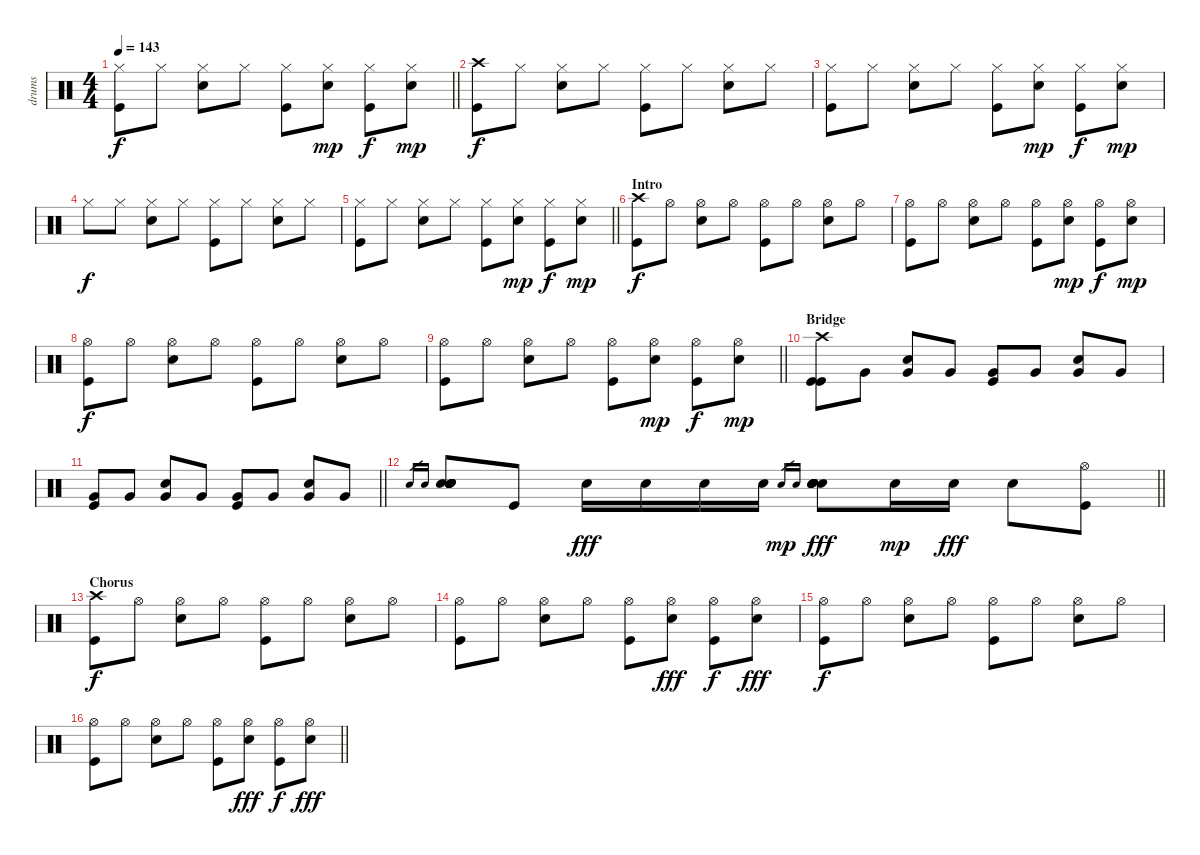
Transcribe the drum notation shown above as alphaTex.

\track ("drums" "drums") {instrument percussion}
\staff {score}
\articulation defaults
\ts (4 4)
\tempo 143
\clef neutral
\barLineRight lightlight
\ks c
("Hi-Hat (closed)" "Kick (hit)").8{dy f} "Hi-Hat (closed)".8 ("Hi-Hat (closed)" "Snare (hit) 2").8 "Hi-Hat (closed)".8 ("Hi-Hat (closed)" "Kick (hit)").8 ("Hi-Hat (closed)" "Snare (hit) 2").8{dy mp} ("Hi-Hat (closed)" "Kick (hit)").8{dy f} ("Hi-Hat (closed)" "Snare (hit) 2").8{dy mp} |
("Crash high (hit)" "Kick (hit)").8{dy f} "Hi-Hat (closed)".8 ("Hi-Hat (closed)" "Snare (hit) 2").8 "Hi-Hat (closed)".8 ("Hi-Hat (closed)" "Kick (hit)").8 "Hi-Hat (closed)".8 ("Hi-Hat (closed)" "Snare (hit) 2").8 "Hi-Hat (closed)".8 |
("Hi-Hat (closed)" "Kick (hit)").8 "Hi-Hat (closed)".8 ("Hi-Hat (closed)" "Snare (hit) 2").8 "Hi-Hat (closed)".8 ("Hi-Hat (closed)" "Kick (hit)").8 ("Hi-Hat (closed)" "Snare (hit) 2").8{dy mp} ("Hi-Hat (closed)" "Kick (hit)").8{dy f} ("Hi-Hat (closed)" "Snare (hit) 2").8{dy mp} |
"Hi-Hat (closed)".8{dy f} "Hi-Hat (closed)".8 ("Hi-Hat (closed)" "Snare (hit) 2").8 "Hi-Hat (closed)".8 ("Hi-Hat (closed)" "Kick (hit)").8 "Hi-Hat (closed)".8 ("Hi-Hat (closed)" "Snare (hit) 2").8 "Hi-Hat (closed)".8 |
\barLineRight lightlight
("Hi-Hat (closed)" "Kick (hit)").8 "Hi-Hat (closed)".8 ("Hi-Hat (closed)" "Snare (hit) 2").8 "Hi-Hat (closed)".8 ("Hi-Hat (closed)" "Kick (hit)").8 ("Hi-Hat (closed)" "Snare (hit) 2").8{dy mp} ("Hi-Hat (closed)" "Kick (hit)").8{dy f} ("Hi-Hat (closed)" "Snare (hit) 2").8{dy mp} |
\section ("" "Intro")
("Crash high (hit)" "Kick (hit)").8{dy f} "Hi-Hat (open)".8 ("Hi-Hat (open)" "Snare (hit) 2").8 "Hi-Hat (open)".8 ("Hi-Hat (open)" "Kick (hit)").8 "Hi-Hat (open)".8 ("Hi-Hat (open)" "Snare (hit) 2").8 "Hi-Hat (open)".8 |
("Hi-Hat (open)" "Kick (hit)").8 "Hi-Hat (open)".8 ("Hi-Hat (open)" "Snare (hit) 2").8 "Hi-Hat (open)".8 ("Hi-Hat (open)" "Kick (hit)").8 ("Hi-Hat (open)" "Snare (hit) 2").8{dy mp} ("Hi-Hat (open)" "Kick (hit)").8{dy f} ("Hi-Hat (open)" "Snare (hit) 2").8{dy mp} |
("Hi-Hat (open)" "Kick (hit)").8{dy f} "Hi-Hat (open)".8 ("Hi-Hat (open)" "Snare (hit) 2").8 "Hi-Hat (open)".8 ("Hi-Hat (open)" "Kick (hit)").8 "Hi-Hat (open)".8 ("Hi-Hat (open)" "Snare (hit) 2").8 "Hi-Hat (open)".8 |
\barLineRight lightlight
("Hi-Hat (open)" "Kick (hit)").8 "Hi-Hat (open)".8 ("Hi-Hat (open)" "Snare (hit) 2").8 "Hi-Hat (open)".8 ("Hi-Hat (open)" "Kick (hit)").8 ("Hi-Hat (open)" "Snare (hit) 2").8{dy mp} ("Hi-Hat (open)" "Kick (hit)").8{dy f} ("Hi-Hat (open)" "Snare (hit) 2").8{dy mp} |
\section ("" "Bridge")
("Crash high (hit)" "Kick (hit)" "Kick (hit)").8 "Very Low Tom (hit)".8 ("Snare (hit) 2" "Very Low Tom (hit)").8 "Very Low Tom (hit)".8 ("Very Low Tom (hit)" "Kick (hit)").8 "Very Low Tom (hit)".8 ("Snare (hit) 2" "Very Low Tom (hit)").8 "Very Low Tom (hit)".8 |
\barLineRight lightlight
("Very Low Tom (hit)" "Kick (hit)").8 "Very Low Tom (hit)".8 ("Snare (hit) 2" "Very Low Tom (hit)").8 "Very Low Tom (hit)".8 ("Very Low Tom (hit)" "Kick (hit)").8 "Very Low Tom (hit)".8 ("Snare (hit) 2" "Very Low Tom (hit)").8 "Very Low Tom (hit)".8 |
\barLineRight lightlight "Snare (hit) 2".16{gr} "Snare (hit) 2".16{gr}
("Snare (hit) 2" "Snare (hit) 2" "Snare (hit) 2" "Snare (hit) 2" "Snare (hit) 2" "Snare (hit) 2").8 "Kick (hit)".8 "Snare (hit) 2".16{dy fff} "Snare (hit) 2".16 "Snare (hit) 2".16 "Snare (hit) 2".16 "Snare (hit) 2".16{gr dy mp} "Snare (hit) 2".16{gr} ("Snare (hit) 2" "Snare (hit) 2" "Snare (hit) 2" "Snare (hit) 2" "Snare (hit) 2" "Snare (hit) 2").8{dy fff} "Snare (hit) 2".16{dy mp} "Snare (hit) 2".16{dy fff} "Snare (hit) 2".8 ("Hi-Hat (open)" "Kick (hit)").8 |
\section ("" "Chorus")
("Crash high (hit)" "Kick (hit)").8{dy f} "Hi-Hat (open)".8 ("Hi-Hat (open)" "Snare (hit) 2").8 "Hi-Hat (open)".8 ("Hi-Hat (open)" "Kick (hit)").8 "Hi-Hat (open)".8 ("Hi-Hat (open)" "Snare (hit) 2").8 "Hi-Hat (open)".8 |
("Hi-Hat (open)" "Kick (hit)").8 "Hi-Hat (open)".8 ("Hi-Hat (open)" "Snare (hit) 2").8 "Hi-Hat (open)".8 ("Hi-Hat (open)" "Kick (hit)").8 ("Hi-Hat (open)" "Snare (hit) 2").8{dy fff} ("Hi-Hat (open)" "Kick (hit)").8{dy f} ("Hi-Hat (open)" "Snare (hit) 2").8{dy fff} |
("Hi-Hat (open)" "Kick (hit)").8{dy f} "Hi-Hat (open)".8 ("Hi-Hat (open)" "Snare (hit) 2").8 "Hi-Hat (open)".8 ("Hi-Hat (open)" "Kick (hit)").8 "Hi-Hat (open)".8 ("Hi-Hat (open)" "Snare (hit) 2").8 "Hi-Hat (open)".8 |
\barLineRight lightlight
("Hi-Hat (open)" "Kick (hit)").8 "Hi-Hat (open)".8 ("Hi-Hat (open)" "Snare (hit) 2").8 "Hi-Hat (open)".8 ("Hi-Hat (open)" "Kick (hit)").8 ("Hi-Hat (open)" "Snare (hit) 2").8{dy fff} ("Hi-Hat (open)" "Kick (hit)").8{dy f} ("Hi-Hat (open)" "Snare (hit) 2").8{dy fff}
